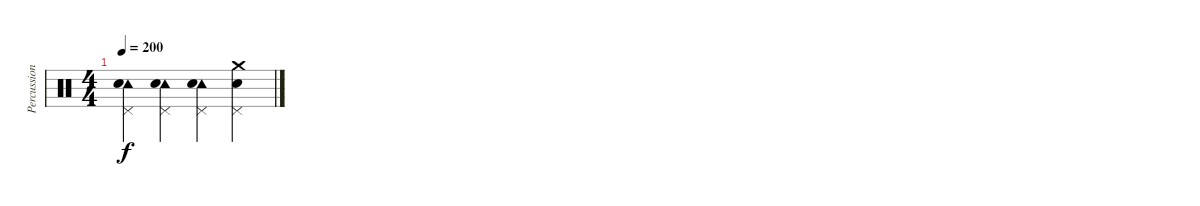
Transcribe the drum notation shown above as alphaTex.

\track ("Percussion" "Percussion") {instrument percussion}
\staff {score}
\articulation defaults
\ts (4 4)
\tempo 200
\clef neutral
\ks c
("Tambourine (hit)" "Pedal Hi-Hat (hit)" "Electric Snare (hit)").4{dy f} ("Tambourine (hit)" "Pedal Hi-Hat (hit)" "Electric Snare (hit)").4 ("Tambourine (hit)" "Pedal Hi-Hat (hit)" "Electric Snare (hit)").4 ("Crash medium (hit)" "Pedal Hi-Hat (hit)" "Electric Snare (hit)").4
